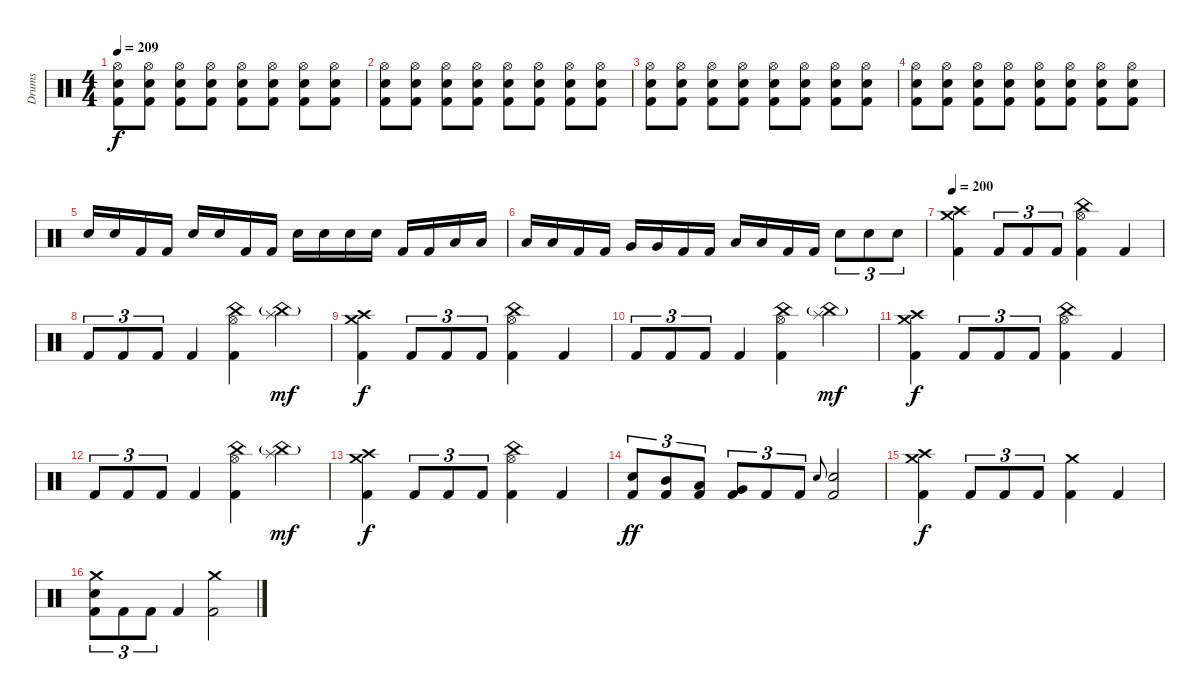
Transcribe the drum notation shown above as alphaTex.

\track ("Drums" "Drums") {instrument percussion}
\staff {score}
\articulation defaults
\ts (4 4)
\tempo 209
\clef neutral
\ks c
("Hi-Hat (open)" "Kick (hit) 2" "Electric Snare (hit)").8{dy f} ("Hi-Hat (open)" "Kick (hit) 2" "Electric Snare (hit)").8 ("Hi-Hat (open)" "Kick (hit) 2" "Electric Snare (hit)").8 ("Hi-Hat (open)" "Kick (hit) 2" "Electric Snare (hit)").8 ("Hi-Hat (open)" "Kick (hit) 2" "Electric Snare (hit)").8 ("Hi-Hat (open)" "Kick (hit) 2" "Electric Snare (hit)").8 ("Hi-Hat (open)" "Kick (hit) 2" "Electric Snare (hit)").8 ("Hi-Hat (open)" "Kick (hit) 2" "Electric Snare (hit)").8 |
("Hi-Hat (open)" "Kick (hit) 2" "Electric Snare (hit)").8 ("Hi-Hat (open)" "Kick (hit) 2" "Electric Snare (hit)").8 ("Hi-Hat (open)" "Kick (hit) 2" "Electric Snare (hit)").8 ("Hi-Hat (open)" "Kick (hit) 2" "Electric Snare (hit)").8 ("Hi-Hat (open)" "Kick (hit) 2" "Electric Snare (hit)").8 ("Hi-Hat (open)" "Kick (hit) 2" "Electric Snare (hit)").8 ("Hi-Hat (open)" "Kick (hit) 2" "Electric Snare (hit)").8 ("Hi-Hat (open)" "Kick (hit) 2" "Electric Snare (hit)").8 |
("Hi-Hat (open)" "Kick (hit) 2" "Electric Snare (hit)").8 ("Hi-Hat (open)" "Kick (hit) 2" "Electric Snare (hit)").8 ("Hi-Hat (open)" "Kick (hit) 2" "Electric Snare (hit)").8 ("Hi-Hat (open)" "Kick (hit) 2" "Electric Snare (hit)").8 ("Hi-Hat (open)" "Kick (hit) 2" "Electric Snare (hit)").8 ("Hi-Hat (open)" "Kick (hit) 2" "Electric Snare (hit)").8 ("Hi-Hat (open)" "Kick (hit) 2" "Electric Snare (hit)").8 ("Hi-Hat (open)" "Kick (hit) 2" "Electric Snare (hit)").8 |
("Hi-Hat (open)" "Kick (hit) 2" "Electric Snare (hit)").8 ("Hi-Hat (open)" "Kick (hit) 2" "Electric Snare (hit)").8 ("Hi-Hat (open)" "Kick (hit) 2" "Electric Snare (hit)").8 ("Hi-Hat (open)" "Kick (hit) 2" "Electric Snare (hit)").8 ("Hi-Hat (open)" "Kick (hit) 2" "Electric Snare (hit)").8 ("Hi-Hat (open)" "Kick (hit) 2" "Electric Snare (hit)").8 ("Hi-Hat (open)" "Kick (hit) 2" "Electric Snare (hit)").8 ("Hi-Hat (open)" "Kick (hit) 2" "Electric Snare (hit)").8 |
"Electric Snare (hit)".16 "Electric Snare (hit)".16 "Kick (hit) 2".16 "Kick (hit) 2".16 "Electric Snare (hit)".16 "Electric Snare (hit)".16 "Kick (hit) 2".16 "Kick (hit) 2".16 "Electric Snare (hit)".16 "Electric Snare (hit)".16 "Electric Snare (hit)".16 "Electric Snare (hit)".16 "Kick (hit) 2".16 "Kick (hit) 2".16 "Low Tom (hit)".16 "Low Tom (hit)".16 |
"Low Tom (hit)".16 "Low Tom (hit)".16 "Kick (hit) 2".16 "Kick (hit) 2".16 "Very Low Tom (hit)".16 "Very Low Tom (hit)".16 "Kick (hit) 2".16 "Kick (hit) 2".16 "Low Floor Tom (hit)".16 "Low Floor Tom (hit)".16 "Kick (hit) 2".16 "Kick (hit) 2".16 "Electric Snare (hit)".8{tu (3 2)} "Electric Snare (hit)".8{tu (3 2)} "Electric Snare (hit)".8{tu (3 2)} |
\tempo 200
("Crash high (hit)" "Crash medium (hit)" "Kick (hit) 2").4 "Kick (hit) 2".8{tu (3 2)} "Kick (hit) 2".8{tu (3 2)} "Kick (hit) 2".8{tu (3 2)} ("China (hit)" "Hi-Hat (open)" "Kick (hit) 2").4 "Kick (hit) 2".4 |
"Kick (hit) 2".8{tu (3 2)} "Kick (hit) 2".8{tu (3 2)} "Kick (hit) 2".8{tu (3 2)} "Kick (hit) 2".4 ("China (hit)" "Hi-Hat (open)" "Kick (hit) 2").4 ("Splash (hit)" "China (hit)"{g}).4{dy mf} |
("Crash high (hit)" "Crash medium (hit)" "Kick (hit) 2").4{dy f} "Kick (hit) 2".8{tu (3 2)} "Kick (hit) 2".8{tu (3 2)} "Kick (hit) 2".8{tu (3 2)} ("China (hit)" "Hi-Hat (open)" "Kick (hit) 2").4 "Kick (hit) 2".4 |
"Kick (hit) 2".8{tu (3 2)} "Kick (hit) 2".8{tu (3 2)} "Kick (hit) 2".8{tu (3 2)} "Kick (hit) 2".4 ("China (hit)" "Hi-Hat (open)" "Kick (hit) 2").4 ("Splash (hit)" "China (hit)"{g}).4{dy mf} |
("Crash high (hit)" "Crash medium (hit)" "Kick (hit) 2").4{dy f} "Kick (hit) 2".8{tu (3 2)} "Kick (hit) 2".8{tu (3 2)} "Kick (hit) 2".8{tu (3 2)} ("China (hit)" "Hi-Hat (open)" "Kick (hit) 2").4 "Kick (hit) 2".4 |
"Kick (hit) 2".8{tu (3 2)} "Kick (hit) 2".8{tu (3 2)} "Kick (hit) 2".8{tu (3 2)} "Kick (hit) 2".4 ("China (hit)" "Hi-Hat (open)" "Kick (hit) 2").4 ("Splash (hit)" "China (hit)"{g}).4{dy mf} |
("Crash high (hit)" "Crash medium (hit)" "Kick (hit) 2").4{dy f} "Kick (hit) 2".8{tu (3 2)} "Kick (hit) 2".8{tu (3 2)} "Kick (hit) 2".8{tu (3 2)} ("China (hit)" "Hi-Hat (open)" "Kick (hit) 2").4 "Kick (hit) 2".4 |
("Kick (hit) 2" "Electric Snare (hit)").8{tu (3 2) dy ff} ("Mid Tom (hit)" "Kick (hit) 2").8{tu (3 2)} ("Low Tom (hit)" "Kick (hit) 2").8{tu (3 2)} ("Very Low Tom (hit)" "Kick (hit) 2").8{tu (3 2)} "Kick (hit) 2".8{tu (3 2)} "Kick (hit) 2".8{tu (3 2)} "Electric Snare (hit)".8{gr onbeat} ("Kick (hit) 2" "Electric Snare (hit)").2 |
("Crash high (hit)" "Crash medium (hit)" "Kick (hit) 2").4{dy f} "Kick (hit) 2".8{tu (3 2)} "Kick (hit) 2".8{tu (3 2)} "Kick (hit) 2".8{tu (3 2)} ("Crash medium (hit)" "Kick (hit) 2").4 "Kick (hit) 2".4 |
("Crash medium (hit)" "Kick (hit) 2" "Electric Snare (hit)").8{tu (3 2)} "Kick (hit) 2".8{tu (3 2)} "Kick (hit) 2".8{tu (3 2)} "Kick (hit) 2".4 ("Crash medium (hit)" "Kick (hit) 2").2
